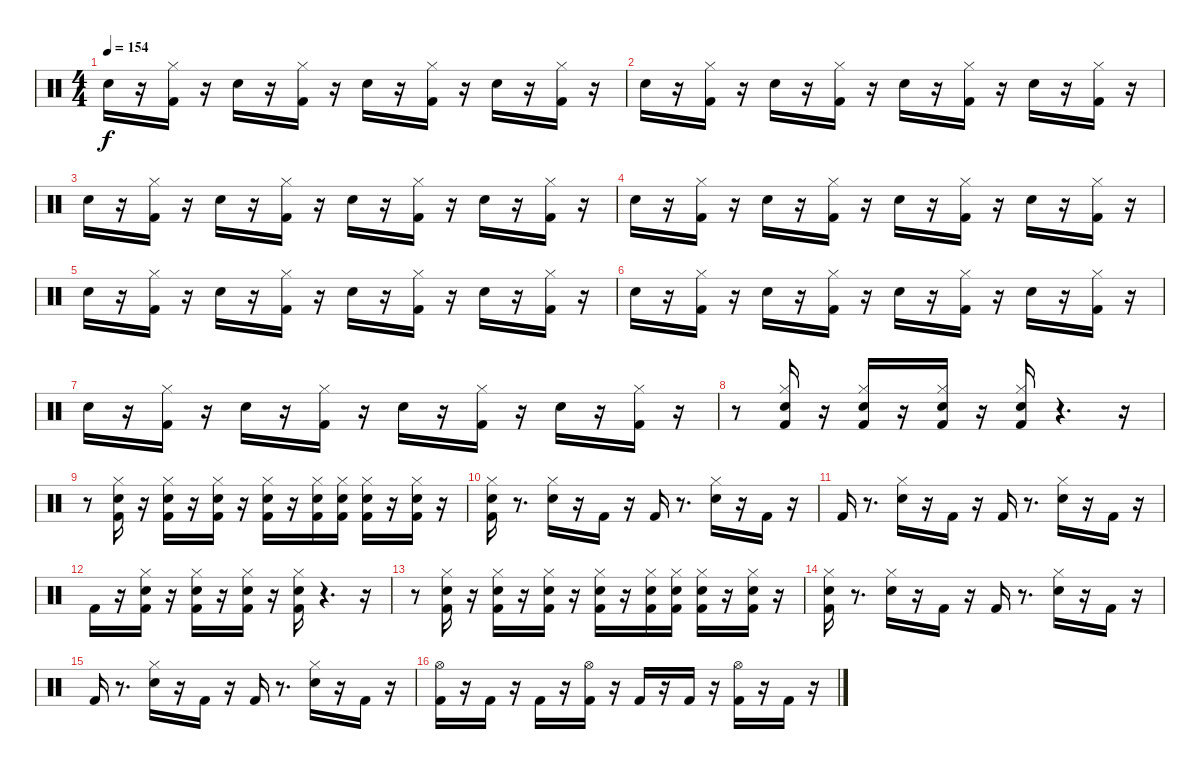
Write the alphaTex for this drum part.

\track "" {instrument percussion}
\staff {score}
\articulation defaults
\ts (4 4)
\tempo 154
\clef neutral
\ks c "Snare (hit) 2".16{dy f}
r.16 ("Hi-Hat (closed)" "Kick (hit) 2").16 r.16 "Snare (hit) 2".16 r.16 ("Hi-Hat (closed)" "Kick (hit) 2").16 r.16 "Snare (hit) 2".16 r.16 ("Hi-Hat (closed)" "Kick (hit) 2").16 r.16 "Snare (hit) 2".16 r.16 ("Kick (hit) 2" "Hi-Hat (closed)").16 r.16 |
"Snare (hit) 2".16 r.16 ("Hi-Hat (closed)" "Kick (hit) 2").16 r.16 "Snare (hit) 2".16 r.16 ("Kick (hit) 2" "Hi-Hat (closed)").16 r.16 "Snare (hit) 2".16 r.16 ("Kick (hit) 2" "Hi-Hat (closed)").16 r.16 "Snare (hit) 2".16 r.16 ("Hi-Hat (closed)" "Kick (hit) 2").16 r.16 |
"Snare (hit) 2".16 r.16 ("Kick (hit) 2" "Hi-Hat (closed)").16 r.16 "Snare (hit) 2".16 r.16 ("Kick (hit) 2" "Hi-Hat (closed)").16 r.16 "Snare (hit) 2".16 r.16 ("Hi-Hat (closed)" "Kick (hit) 2").16 r.16 "Snare (hit) 2".16 r.16 ("Hi-Hat (closed)" "Kick (hit) 2").16 r.16 |
"Snare (hit) 2".16 r.16 ("Hi-Hat (closed)" "Kick (hit) 2").16 r.16 "Snare (hit) 2".16 r.16 ("Kick (hit) 2" "Hi-Hat (closed)").16 r.16 "Snare (hit) 2".16 r.16 ("Hi-Hat (closed)" "Kick (hit) 2").16 r.16 "Snare (hit) 2".16 r.16 ("Kick (hit) 2" "Hi-Hat (closed)").16 r.16 |
"Snare (hit) 2".16 r.16 ("Hi-Hat (closed)" "Kick (hit) 2").16 r.16 "Snare (hit) 2".16 r.16 ("Kick (hit) 2" "Hi-Hat (closed)").16 r.16 "Snare (hit) 2".16 r.16 ("Kick (hit) 2" "Hi-Hat (closed)").16 r.16 "Snare (hit) 2".16 r.16 ("Kick (hit) 2" "Hi-Hat (closed)").16 r.16 |
"Snare (hit) 2".16 r.16 ("Kick (hit) 2" "Hi-Hat (closed)").16 r.16 "Snare (hit) 2".16 r.16 ("Hi-Hat (closed)" "Kick (hit) 2").16 r.16 "Snare (hit) 2".16 r.16 ("Hi-Hat (closed)" "Kick (hit) 2").16 r.16 "Snare (hit) 2".16 r.16 ("Hi-Hat (closed)" "Kick (hit) 2").16 r.16 |
"Snare (hit) 2".16 r.16 ("Hi-Hat (closed)" "Kick (hit) 2").16 r.16 "Snare (hit) 2".16 r.16 ("Hi-Hat (closed)" "Kick (hit) 2").16 r.16 "Snare (hit) 2".16 r.16 ("Kick (hit) 2" "Hi-Hat (closed)").16 r.16 "Snare (hit) 2".16 r.16 ("Kick (hit) 2" "Hi-Hat (closed)").16 r.16 |
r.8 ("Kick (hit) 2" "Hi-Hat (closed)" "Snare (hit) 2").16 r.16 ("Snare (hit) 2" "Kick (hit) 2" "Hi-Hat (closed)").16 r.16 ("Hi-Hat (closed)" "Snare (hit) 2" "Kick (hit) 2").16 r.16 ("Kick (hit) 2" "Hi-Hat (closed)" "Snare (hit) 2").16 r.4{d} r.16 |
r.8 ("Electric Snare (hit)" "Kick (hit) 2" "Hi-Hat (closed)").16 r.16 ("Kick (hit) 2" "Hi-Hat (closed)" "Electric Snare (hit)").16 r.16 ("Electric Snare (hit)" "Kick (hit) 2" "Hi-Hat (closed)").16 r.16 ("Hi-Hat (closed)" "Kick (hit) 2" "Electric Snare (hit)").16 r.16 ("Hi-Hat (closed)" "Kick (hit) 2" "Electric Snare (hit)").16 ("Electric Snare (hit)" "Kick (hit) 2" "Hi-Hat (closed)").16 ("Kick (hit) 2" "Hi-Hat (closed)" "Electric Snare (hit)").16 r.16 ("Kick (hit) 2" "Electric Snare (hit)" "Hi-Hat (closed)").16 r.16 |
("Hi-Hat (closed)" "Electric Snare (hit)" "Kick (hit) 2").16 r.8{d} ("Hi-Hat (closed)" "Electric Snare (hit)").16 r.16 "Kick (hit) 2".16 r.16 "Kick (hit) 2".16 r.8{d} ("Hi-Hat (closed)" "Electric Snare (hit)").16 r.16 "Kick (hit) 2".16 r.16 |
"Kick (hit) 2".16 r.8{d} ("Electric Snare (hit)" "Hi-Hat (closed)").16 r.16 "Kick (hit) 2".16 r.16 "Kick (hit) 2".16 r.8{d} ("Hi-Hat (closed)" "Electric Snare (hit)").16 r.16 "Kick (hit) 2".16 r.16 |
"Kick (hit) 2".16 r.16 ("Hi-Hat (closed)" "Electric Snare (hit)" "Kick (hit) 2").16 r.16 ("Hi-Hat (closed)" "Electric Snare (hit)" "Kick (hit) 2").16 r.16 ("Electric Snare (hit)" "Hi-Hat (closed)" "Kick (hit) 2").16 r.16 ("Kick (hit) 2" "Electric Snare (hit)" "Hi-Hat (closed)").16 r.4{d} r.16 |
r.8 ("Electric Snare (hit)" "Hi-Hat (closed)" "Kick (hit) 2").16 r.16 ("Hi-Hat (closed)" "Kick (hit) 2" "Electric Snare (hit)").16 r.16 ("Kick (hit) 2" "Electric Snare (hit)" "Hi-Hat (closed)").16 r.16 ("Kick (hit) 2" "Electric Snare (hit)" "Hi-Hat (closed)").16 r.16 ("Hi-Hat (closed)" "Electric Snare (hit)" "Kick (hit) 2").16 ("Hi-Hat (closed)" "Electric Snare (hit)" "Kick (hit) 2").16 ("Kick (hit) 2" "Electric Snare (hit)" "Hi-Hat (closed)").16 r.16 ("Hi-Hat (closed)" "Electric Snare (hit)" "Kick (hit) 2").16 r.16 |
("Electric Snare (hit)" "Hi-Hat (closed)" "Kick (hit) 2").16 r.8{d} ("Hi-Hat (closed)" "Electric Snare (hit)").16 r.16 "Kick (hit) 2".16 r.16 "Kick (hit) 2".16 r.8{d} ("Hi-Hat (closed)" "Electric Snare (hit)").16 r.16 "Kick (hit) 2".16 r.16 |
"Kick (hit) 2".16 r.8{d} ("Hi-Hat (closed)" "Electric Snare (hit)").16 r.16 "Kick (hit) 2".16 r.16 "Kick (hit) 2".16 r.8{d} ("Hi-Hat (closed)" "Electric Snare (hit)").16 r.16 "Kick (hit) 2".16 r.16 |
("Kick (hit) 2" "Hi-Hat (open)").16 r.16 "Kick (hit) 2".16 r.16 "Kick (hit) 2".16 r.16 ("Hi-Hat (open)" "Kick (hit) 2").16 r.16 "Kick (hit) 2".16 r.16 "Kick (hit) 2".16 r.16 ("Hi-Hat (open)" "Kick (hit) 2").16 r.16 "Kick (hit) 2".16 r.16
